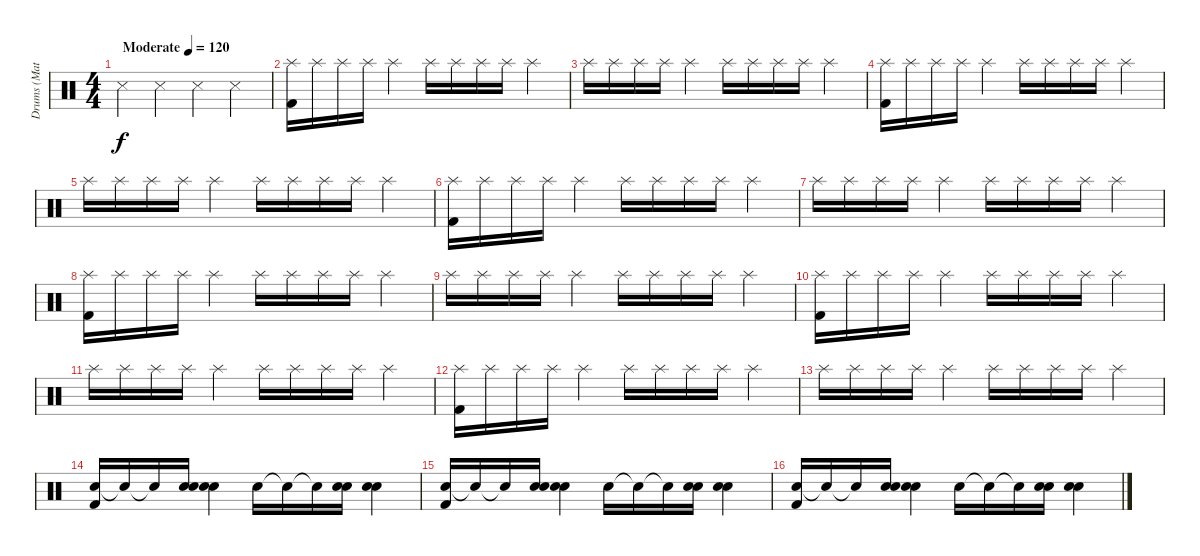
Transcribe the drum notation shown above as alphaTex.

\track ("Drums (Matt)" "Drums (Mat") {instrument percussion}
\staff {score}
\articulation defaults
\ts (4 4)
\tempo (120 "Moderate")
\clef neutral
\ks c "Metronome (hit)".4{dy f} "Metronome (hit)".4 "Metronome (hit)".4 "Metronome (hit)".4
|
("Splash (hit)" "Kick (hit) 2").16 "Splash (hit)".16 "Splash (hit)".16 "Splash (hit)".16 "Splash (hit)".4 "Splash (hit)".16 "Splash (hit)".16 "Splash (hit)".16 "Splash (hit)".16 "Splash (hit)".4 |
"Splash (hit)".16 "Splash (hit)".16 "Splash (hit)".16 "Splash (hit)".16 "Splash (hit)".4 "Splash (hit)".16 "Splash (hit)".16 "Splash (hit)".16 "Splash (hit)".16 "Splash (hit)".4 |
("Splash (hit)" "Kick (hit) 2").16 "Splash (hit)".16 "Splash (hit)".16 "Splash (hit)".16 "Splash (hit)".4 "Splash (hit)".16 "Splash (hit)".16 "Splash (hit)".16 "Splash (hit)".16 "Splash (hit)".4 |
"Splash (hit)".16 "Splash (hit)".16 "Splash (hit)".16 "Splash (hit)".16 "Splash (hit)".4 "Splash (hit)".16 "Splash (hit)".16 "Splash (hit)".16 "Splash (hit)".16 "Splash (hit)".4 |
("Splash (hit)" "Kick (hit) 2").16 "Splash (hit)".16 "Splash (hit)".16 "Splash (hit)".16 "Splash (hit)".4 "Splash (hit)".16 "Splash (hit)".16 "Splash (hit)".16 "Splash (hit)".16 "Splash (hit)".4 |
"Splash (hit)".16 "Splash (hit)".16 "Splash (hit)".16 "Splash (hit)".16 "Splash (hit)".4 "Splash (hit)".16 "Splash (hit)".16 "Splash (hit)".16 "Splash (hit)".16 "Splash (hit)".4 |
("Splash (hit)" "Kick (hit) 2").16 "Splash (hit)".16 "Splash (hit)".16 "Splash (hit)".16 "Splash (hit)".4 "Splash (hit)".16 "Splash (hit)".16 "Splash (hit)".16 "Splash (hit)".16 "Splash (hit)".4 |
"Splash (hit)".16 "Splash (hit)".16 "Splash (hit)".16 "Splash (hit)".16 "Splash (hit)".4 "Splash (hit)".16 "Splash (hit)".16 "Splash (hit)".16 "Splash (hit)".16 "Splash (hit)".4 |
("Splash (hit)" "Kick (hit) 2").16 "Splash (hit)".16 "Splash (hit)".16 "Splash (hit)".16 "Splash (hit)".4 "Splash (hit)".16 "Splash (hit)".16 "Splash (hit)".16 "Splash (hit)".16 "Splash (hit)".4 |
"Splash (hit)".16 "Splash (hit)".16 "Splash (hit)".16 "Splash (hit)".16 "Splash (hit)".4 "Splash (hit)".16 "Splash (hit)".16 "Splash (hit)".16 "Splash (hit)".16 "Splash (hit)".4 |
("Splash (hit)" "Kick (hit) 2").16 "Splash (hit)".16 "Splash (hit)".16 "Splash (hit)".16 "Splash (hit)".4 "Splash (hit)".16 "Splash (hit)".16 "Splash (hit)".16 "Splash (hit)".16 "Splash (hit)".4 |
"Splash (hit)".16 "Splash (hit)".16 "Splash (hit)".16 "Splash (hit)".16 "Splash (hit)".4 "Splash (hit)".16 "Splash (hit)".16 "Splash (hit)".16 "Splash (hit)".16 "Splash (hit)".4 |
("Snare (hit) 2" "Kick (hit) 2").16 "Snare (hit) 2"{t}.16 "Snare (hit) 2"{t}.16 ("Snare (hit) 2" "Snare (hit) 2").16 ("Snare (hit) 2" "Snare (hit) 2").4 "Snare (hit) 2".16 "Snare (hit) 2"{t}.16 "Snare (hit) 2"{t}.16 ("Snare (hit) 2" "Snare (hit) 2").16 ("Snare (hit) 2" "Snare (hit) 2").4 |
("Snare (hit) 2" "Kick (hit) 2").16 "Snare (hit) 2"{t}.16 "Snare (hit) 2"{t}.16 ("Snare (hit) 2" "Snare (hit) 2").16 ("Snare (hit) 2" "Snare (hit) 2").4 "Snare (hit) 2".16 "Snare (hit) 2"{t}.16 "Snare (hit) 2"{t}.16 ("Snare (hit) 2" "Snare (hit) 2").16 ("Snare (hit) 2" "Snare (hit) 2").4 |
("Snare (hit) 2" "Kick (hit) 2").16 "Snare (hit) 2"{t}.16 "Snare (hit) 2"{t}.16 ("Snare (hit) 2" "Snare (hit) 2").16 ("Snare (hit) 2" "Snare (hit) 2").4 "Snare (hit) 2".16 "Snare (hit) 2"{t}.16 "Snare (hit) 2"{t}.16 ("Snare (hit) 2" "Snare (hit) 2").16 ("Snare (hit) 2" "Snare (hit) 2").4
